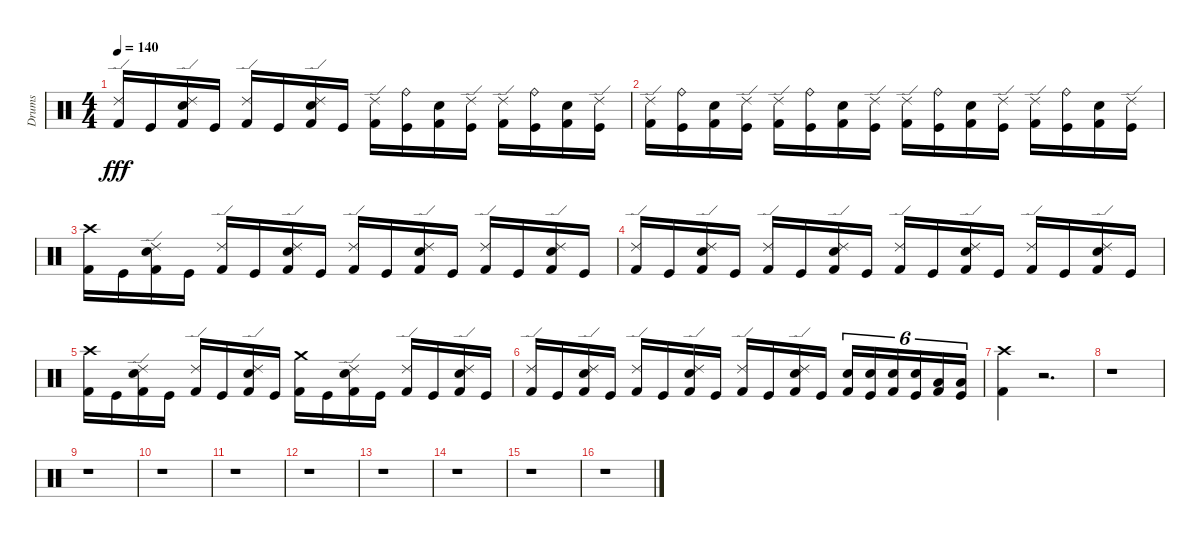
\track ("Drums" "Drums") {instrument percussion}
\staff {score}
\articulation defaults
\ts (4 4)
\tempo 140
\clef neutral
\ks c
("Ride (edge) 2" "Kick (hit) 2").16{dy fff} "Kick (hit)".16 ("Ride (edge) 2" "Electric Snare (hit)" "Kick (hit) 2").16 "Kick (hit)".16 ("Ride (edge) 2" "Kick (hit) 2").16 "Kick (hit)".16 ("Ride (edge) 2" "Electric Snare (hit)" "Kick (hit) 2").16 "Kick (hit)".16 ("Ride (edge) 2" "Kick (hit) 2").16 ("Ride (bell)" "Kick (hit)").16 ("Electric Snare (hit)" "Kick (hit) 2").16 ("Ride (edge) 2" "Kick (hit)").16 ("Ride (edge) 2" "Kick (hit) 2").16 ("Ride (bell)" "Kick (hit)").16 ("Electric Snare (hit)" "Kick (hit) 2").16 ("Ride (edge) 2" "Kick (hit)").16 |
("Ride (edge) 2" "Kick (hit) 2").16 ("Ride (bell)" "Kick (hit)").16 ("Electric Snare (hit)" "Kick (hit) 2").16 ("Ride (edge) 2" "Kick (hit)").16 ("Ride (edge) 2" "Kick (hit) 2").16 ("Ride (bell)" "Kick (hit)").16 ("Electric Snare (hit)" "Kick (hit) 2").16 ("Ride (edge) 2" "Kick (hit)").16 ("Ride (edge) 2" "Kick (hit) 2").16 ("Ride (bell)" "Kick (hit)").16 ("Electric Snare (hit)" "Kick (hit) 2").16 ("Ride (edge) 2" "Kick (hit)").16 ("Ride (edge) 2" "Kick (hit) 2").16 ("Ride (bell)" "Kick (hit)").16 ("Electric Snare (hit)" "Kick (hit) 2").16 ("Ride (edge) 2" "Kick (hit)").16 |
("Crash high (hit)" "Kick (hit) 2").16 "Kick (hit)".16 ("Ride (edge) 2" "Electric Snare (hit)" "Kick (hit) 2").16 "Kick (hit)".16 ("Ride (edge) 2" "Kick (hit) 2").16 "Kick (hit)".16 ("Ride (edge) 2" "Electric Snare (hit)" "Kick (hit) 2").16 "Kick (hit)".16 ("Ride (edge) 2" "Kick (hit) 2").16 "Kick (hit)".16 ("Ride (edge) 2" "Electric Snare (hit)" "Kick (hit) 2").16 "Kick (hit)".16 ("Ride (edge) 2" "Kick (hit) 2").16 "Kick (hit)".16 ("Ride (edge) 2" "Electric Snare (hit)" "Kick (hit) 2").16 "Kick (hit)".16 |
("Ride (edge) 2" "Kick (hit) 2").16 "Kick (hit)".16 ("Ride (edge) 2" "Electric Snare (hit)" "Kick (hit) 2").16 "Kick (hit)".16 ("Ride (edge) 2" "Kick (hit) 2").16 "Kick (hit)".16 ("Ride (edge) 2" "Electric Snare (hit)" "Kick (hit) 2").16 "Kick (hit)".16 ("Ride (edge) 2" "Kick (hit) 2").16 "Kick (hit)".16 ("Ride (edge) 2" "Electric Snare (hit)" "Kick (hit) 2").16 "Kick (hit)".16 ("Ride (edge) 2" "Kick (hit) 2").16 "Kick (hit)".16 ("Ride (edge) 2" "Electric Snare (hit)" "Kick (hit) 2").16 "Kick (hit)".16 |
("Crash high (hit)" "Kick (hit) 2").16 "Kick (hit)".16 ("Ride (edge) 2" "Electric Snare (hit)" "Kick (hit) 2").16 "Kick (hit)".16 ("Ride (edge) 2" "Kick (hit) 2").16 "Kick (hit)".16 ("Ride (edge) 2" "Electric Snare (hit)" "Kick (hit) 2").16 "Kick (hit)".16 ("Crash medium (hit)" "Kick (hit) 2").16 "Kick (hit)".16 ("Ride (edge) 2" "Electric Snare (hit)" "Kick (hit) 2").16 "Kick (hit)".16 ("Ride (edge) 2" "Kick (hit) 2").16 "Kick (hit)".16 ("Ride (edge) 2" "Electric Snare (hit)" "Kick (hit) 2").16 "Kick (hit)".16 |
("Ride (edge) 2" "Kick (hit) 2").16 "Kick (hit)".16 ("Ride (edge) 2" "Electric Snare (hit)" "Kick (hit) 2").16 "Kick (hit)".16 ("Ride (edge) 2" "Kick (hit) 2").16 "Kick (hit)".16 ("Ride (edge) 2" "Electric Snare (hit)" "Kick (hit) 2").16 "Kick (hit)".16 ("Ride (edge) 2" "Kick (hit) 2").16 "Kick (hit)".16 ("Ride (edge) 2" "Electric Snare (hit)" "Kick (hit) 2").16 "Kick (hit)".16 ("Electric Snare (hit)" "Kick (hit) 2").16{tu (6 4)} ("Electric Snare (hit)" "Kick (hit)").16{tu (6 4)} ("Electric Snare (hit)" "Kick (hit) 2").16{tu (6 4)} ("Electric Snare (hit)" "Kick (hit)").16{tu (6 4)} ("Low Tom (hit)" "Kick (hit) 2").16{tu (6 4)} ("Low Floor Tom (hit)" "Kick (hit)").16{tu (6 4)} |
("Crash high (hit)" "Kick (hit) 2").4 r.2{d} |
r.1 |
r.1 |
r.1 |
r.1 |
r.1 |
r.1 |
r.1 |
r.1 |
r.1
